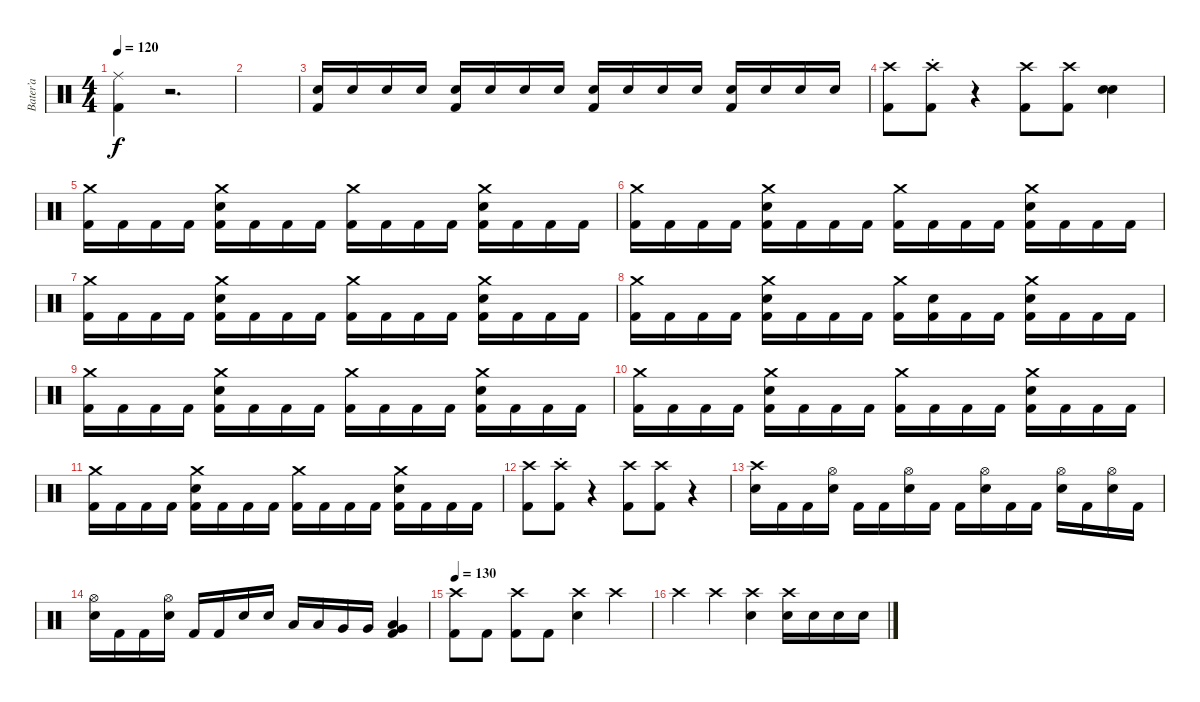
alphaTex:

\track ("Bater’a" "Bater’a") {instrument percussion}
\staff {score}
\articulation defaults
\ts (4 4)
\tempo 120
\clef neutral
\ks c
("Ride (middle)" "Kick (hit) 2").4{dy f} r.2{d} |
|
("Electric Snare (hit)" "Kick (hit) 2").16{volume 16} "Electric Snare (hit)".16 "Electric Snare (hit)".16 "Electric Snare (hit)".16 ("Electric Snare (hit)" "Kick (hit) 2").16 "Electric Snare (hit)".16 "Electric Snare (hit)".16 "Electric Snare (hit)".16 ("Electric Snare (hit)" "Kick (hit) 2").16 "Electric Snare (hit)".16 "Electric Snare (hit)".16 "Electric Snare (hit)".16 ("Electric Snare (hit)" "Kick (hit) 2").16 "Electric Snare (hit)".16 "Electric Snare (hit)".16 "Electric Snare (hit)".16 |
("Crash high (hit)" "Kick (hit) 2").8{volume 12} ("Crash high (hit)"{st} "Kick (hit) 2").8 r.4 ("Crash high (hit)" "Kick (hit) 2").8 ("Crash high (hit)" "Kick (hit) 2").8 ("Electric Snare (hit)" "Electric Snare (hit)").4 |
("Crash medium (hit)" "Kick (hit) 2").16 "Kick (hit) 2".16 "Kick (hit) 2".16 "Kick (hit) 2".16 ("Crash medium (hit)" "Electric Snare (hit)" "Kick (hit) 2").16 "Kick (hit) 2".16 "Kick (hit) 2".16 "Kick (hit) 2".16 ("Crash medium (hit)" "Kick (hit) 2").16 "Kick (hit) 2".16 "Kick (hit) 2".16 "Kick (hit) 2".16 ("Crash medium (hit)" "Electric Snare (hit)" "Kick (hit) 2").16 "Kick (hit) 2".16 "Kick (hit) 2".16 "Kick (hit) 2".16 |
("Crash medium (hit)" "Kick (hit) 2").16 "Kick (hit) 2".16 "Kick (hit) 2".16 "Kick (hit) 2".16 ("Crash medium (hit)" "Electric Snare (hit)" "Kick (hit) 2").16 "Kick (hit) 2".16 "Kick (hit) 2".16 "Kick (hit) 2".16 ("Crash medium (hit)" "Kick (hit) 2").16 "Kick (hit) 2".16 "Kick (hit) 2".16 "Kick (hit) 2".16 ("Crash medium (hit)" "Electric Snare (hit)" "Kick (hit) 2").16 "Kick (hit) 2".16 "Kick (hit) 2".16 "Kick (hit) 2".16 |
("Crash medium (hit)" "Kick (hit) 2").16 "Kick (hit) 2".16 "Kick (hit) 2".16 "Kick (hit) 2".16 ("Crash medium (hit)" "Electric Snare (hit)" "Kick (hit) 2").16 "Kick (hit) 2".16 "Kick (hit) 2".16 "Kick (hit) 2".16 ("Crash medium (hit)" "Kick (hit) 2").16 "Kick (hit) 2".16 "Kick (hit) 2".16 "Kick (hit) 2".16 ("Crash medium (hit)" "Electric Snare (hit)" "Kick (hit) 2").16 "Kick (hit) 2".16 "Kick (hit) 2".16 "Kick (hit) 2".16 |
("Crash medium (hit)" "Kick (hit) 2").16 "Kick (hit) 2".16 "Kick (hit) 2".16 "Kick (hit) 2".16 ("Crash medium (hit)" "Electric Snare (hit)" "Kick (hit) 2").16 "Kick (hit) 2".16 "Kick (hit) 2".16 "Kick (hit) 2".16 ("Crash medium (hit)" "Kick (hit) 2").16 ("Electric Snare (hit)" "Kick (hit) 2").16 "Kick (hit) 2".16 "Kick (hit) 2".16 ("Crash medium (hit)" "Electric Snare (hit)" "Kick (hit) 2").16 "Kick (hit) 2".16 "Kick (hit) 2".16 "Kick (hit) 2".16 |
("Crash medium (hit)" "Kick (hit) 2").16 "Kick (hit) 2".16 "Kick (hit) 2".16 "Kick (hit) 2".16 ("Crash medium (hit)" "Electric Snare (hit)" "Kick (hit) 2").16 "Kick (hit) 2".16 "Kick (hit) 2".16 "Kick (hit) 2".16 ("Crash medium (hit)" "Kick (hit) 2").16 "Kick (hit) 2".16 "Kick (hit) 2".16 "Kick (hit) 2".16 ("Crash medium (hit)" "Electric Snare (hit)" "Kick (hit) 2").16 "Kick (hit) 2".16 "Kick (hit) 2".16 "Kick (hit) 2".16 |
("Crash medium (hit)" "Kick (hit) 2").16 "Kick (hit) 2".16 "Kick (hit) 2".16 "Kick (hit) 2".16 ("Crash medium (hit)" "Electric Snare (hit)" "Kick (hit) 2").16 "Kick (hit) 2".16 "Kick (hit) 2".16 "Kick (hit) 2".16 ("Crash medium (hit)" "Kick (hit) 2").16 "Kick (hit) 2".16 "Kick (hit) 2".16 "Kick (hit) 2".16 ("Crash medium (hit)" "Electric Snare (hit)" "Kick (hit) 2").16 "Kick (hit) 2".16 "Kick (hit) 2".16 "Kick (hit) 2".16 |
("Crash medium (hit)" "Kick (hit) 2").16 "Kick (hit) 2".16 "Kick (hit) 2".16 "Kick (hit) 2".16 ("Crash medium (hit)" "Electric Snare (hit)" "Kick (hit) 2").16 "Kick (hit) 2".16 "Kick (hit) 2".16 "Kick (hit) 2".16 ("Crash medium (hit)" "Kick (hit) 2").16 "Kick (hit) 2".16 "Kick (hit) 2".16 "Kick (hit) 2".16 ("Crash medium (hit)" "Electric Snare (hit)" "Kick (hit) 2").16 "Kick (hit) 2".16 "Kick (hit) 2".16 "Kick (hit) 2".16 |
("Crash high (hit)" "Kick (hit) 2").8{volume 12} ("Crash high (hit)"{st} "Kick (hit) 2").8 r.4 ("Crash high (hit)" "Kick (hit) 2").8 ("Crash high (hit)" "Kick (hit) 2").8 r.4 |
("Crash high (hit)" "Electric Snare (hit)").16 "Kick (hit) 2".16 "Kick (hit) 2".16 ("Hi-Hat (open)" "Electric Snare (hit)").16 "Kick (hit) 2".16 "Kick (hit) 2".16 ("Hi-Hat (open)" "Electric Snare (hit)").16 "Kick (hit) 2".16 "Kick (hit) 2".16 ("Hi-Hat (open)" "Electric Snare (hit)").16 "Kick (hit) 2".16 "Kick (hit) 2".16 ("Hi-Hat (open)" "Electric Snare (hit)").16 "Kick (hit) 2".16 ("Hi-Hat (open)" "Electric Snare (hit)").16 "Kick (hit) 2".16 |
("Hi-Hat (open)" "Electric Snare (hit)").16 "Kick (hit) 2".16 "Kick (hit) 2".16 ("Hi-Hat (open)" "Electric Snare (hit)").16 "Kick (hit) 2".16 "Kick (hit) 2".16 "Electric Snare (hit)".16 "Electric Snare (hit)".16 "Low Tom (hit)".16 "Low Tom (hit)".16 "Very Low Tom (hit)".16 "Very Low Tom (hit)".16 ("Very Low Tom (hit)" "Low Floor Tom (hit)" "Kick (hit) 2").4 |
\tempo 130
("Crash high (hit)" "Kick (hit) 2").8 "Kick (hit) 2".8 ("Crash high (hit)" "Kick (hit) 2").8 "Kick (hit) 2".8 ("Crash high (hit)" "Electric Snare (hit)").4 "Crash high (hit)".4 |
"Crash high (hit)".4 "Crash high (hit)".4 ("Crash high (hit)" "Electric Snare (hit)").4 ("Crash high (hit)" "Electric Snare (hit)").16 "Electric Snare (hit)".16 "Electric Snare (hit)".16 "Electric Snare (hit)".16
